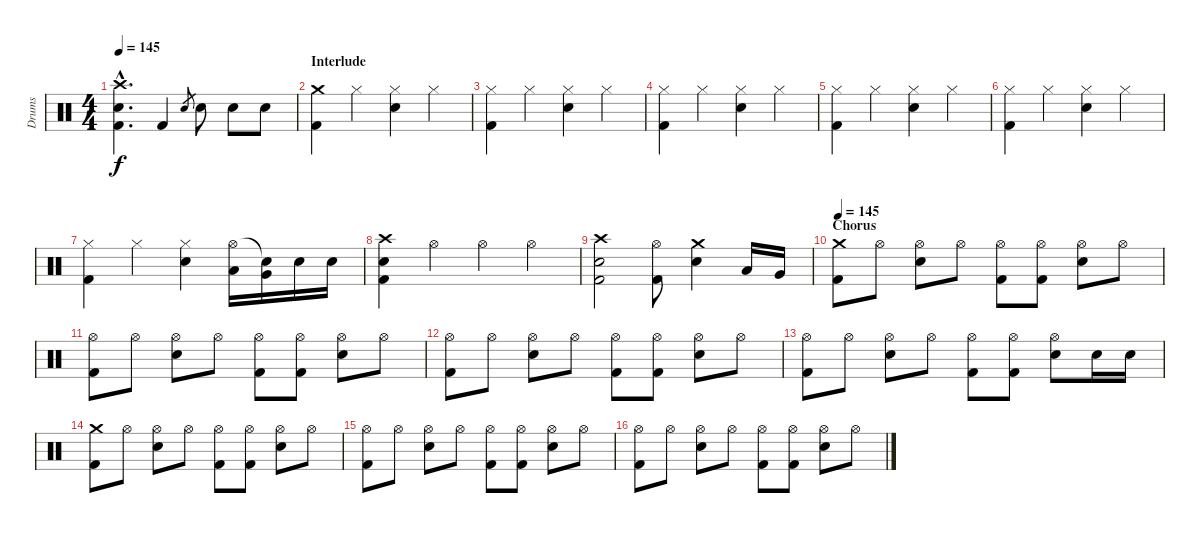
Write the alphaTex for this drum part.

\track ("Drums" "Drums") {instrument percussion}
\staff {score}
\articulation defaults
\ts (4 4)
\tempo 145
\clef neutral
\ks c
("Crash high (hit)"{hac} "Electric Snare (hit)"{hac} "Kick (hit) 2"{hac}).4{d dy f} "Kick (hit) 2".4 "Electric Snare (hit)".8{gr} "Electric Snare (hit)".8 "Electric Snare (hit)".8 "Electric Snare (hit)".8 |
\section ("" "Interlude")
("Crash medium (hit)" "Kick (hit) 2").4 "Hi-Hat (closed)".4 ("Hi-Hat (closed)" "Electric Snare (hit)").4 "Hi-Hat (closed)".4 |
("Hi-Hat (closed)" "Kick (hit) 2").4 "Hi-Hat (closed)".4 ("Hi-Hat (closed)" "Electric Snare (hit)").4 "Hi-Hat (closed)".4 |
("Hi-Hat (closed)" "Kick (hit) 2").4 "Hi-Hat (closed)".4 ("Hi-Hat (closed)" "Electric Snare (hit)").4 "Hi-Hat (closed)".4 |
("Hi-Hat (closed)" "Kick (hit) 2").4 "Hi-Hat (closed)".4 ("Hi-Hat (closed)" "Electric Snare (hit)").4 "Hi-Hat (closed)".4 |
("Hi-Hat (closed)" "Kick (hit) 2").4 "Hi-Hat (closed)".4 ("Hi-Hat (closed)" "Electric Snare (hit)").4 "Hi-Hat (closed)".4 |
("Hi-Hat (closed)" "Kick (hit) 2").4 "Hi-Hat (closed)".4 ("Hi-Hat (closed)" "Electric Snare (hit)").4 ("Hi-Hat (open)" "Low Floor Tom (hit)").16 ("Snare (hit)"{t} "Very Low Tom (hit)").16 "Electric Snare (hit)".16 "Electric Snare (hit)".16 |
("Crash high (hit)" "Electric Snare (hit)" "Kick (hit) 2").4 "Hi-Hat (open)".4 "Hi-Hat (open)".4 "Hi-Hat (open)".4 |
("Crash high (hit)" "Electric Snare (hit)" "Kick (hit) 2").2 ("Hi-Hat (open)" "Kick (hit) 2").8 ("Crash medium (hit)" "Electric Snare (hit)").4 "Low Floor Tom (hit)".16 "Very Low Tom (hit)".16 |
\section ("" "Chorus")
\tempo 145
("Crash medium (hit)" "Kick (hit) 2").8 "Hi-Hat (open)".8 ("Hi-Hat (open)" "Electric Snare (hit)").8 "Hi-Hat (open)".8 ("Hi-Hat (open)" "Kick (hit) 2").8 ("Hi-Hat (open)" "Kick (hit) 2").8 ("Hi-Hat (open)" "Electric Snare (hit)").8 "Hi-Hat (open)".8 |
("Hi-Hat (open)" "Kick (hit) 2").8 "Hi-Hat (open)".8 ("Hi-Hat (open)" "Electric Snare (hit)").8 "Hi-Hat (open)".8 ("Hi-Hat (open)" "Kick (hit) 2").8 ("Hi-Hat (open)" "Kick (hit) 2").8 ("Hi-Hat (open)" "Electric Snare (hit)").8 "Hi-Hat (open)".8 |
("Hi-Hat (open)" "Kick (hit) 2").8 "Hi-Hat (open)".8 ("Hi-Hat (open)" "Electric Snare (hit)").8 "Hi-Hat (open)".8 ("Hi-Hat (open)" "Kick (hit) 2").8 ("Hi-Hat (open)" "Kick (hit) 2").8 ("Hi-Hat (open)" "Electric Snare (hit)").8 "Hi-Hat (open)".8 |
("Hi-Hat (open)" "Kick (hit) 2").8 "Hi-Hat (open)".8 ("Hi-Hat (open)" "Electric Snare (hit)").8 "Hi-Hat (open)".8 ("Hi-Hat (open)" "Kick (hit) 2").8 ("Hi-Hat (open)" "Kick (hit) 2").8 ("Hi-Hat (open)" "Electric Snare (hit)").8 "Electric Snare (hit)".16 "Electric Snare (hit)".16 |
("Crash medium (hit)" "Kick (hit) 2").8 "Hi-Hat (open)".8 ("Hi-Hat (open)" "Electric Snare (hit)").8 "Hi-Hat (open)".8 ("Hi-Hat (open)" "Kick (hit) 2").8 ("Hi-Hat (open)" "Kick (hit) 2").8 ("Hi-Hat (open)" "Electric Snare (hit)").8 "Hi-Hat (open)".8 |
("Hi-Hat (open)" "Kick (hit) 2").8 "Hi-Hat (open)".8 ("Hi-Hat (open)" "Electric Snare (hit)").8 "Hi-Hat (open)".8 ("Hi-Hat (open)" "Kick (hit) 2").8 ("Hi-Hat (open)" "Kick (hit) 2").8 ("Hi-Hat (open)" "Electric Snare (hit)").8 "Hi-Hat (open)".8 |
("Hi-Hat (open)" "Kick (hit) 2").8 "Hi-Hat (open)".8 ("Hi-Hat (open)" "Electric Snare (hit)").8 "Hi-Hat (open)".8 ("Hi-Hat (open)" "Kick (hit) 2").8 ("Hi-Hat (open)" "Kick (hit) 2").8 ("Hi-Hat (open)" "Electric Snare (hit)").8 "Hi-Hat (open)".8
